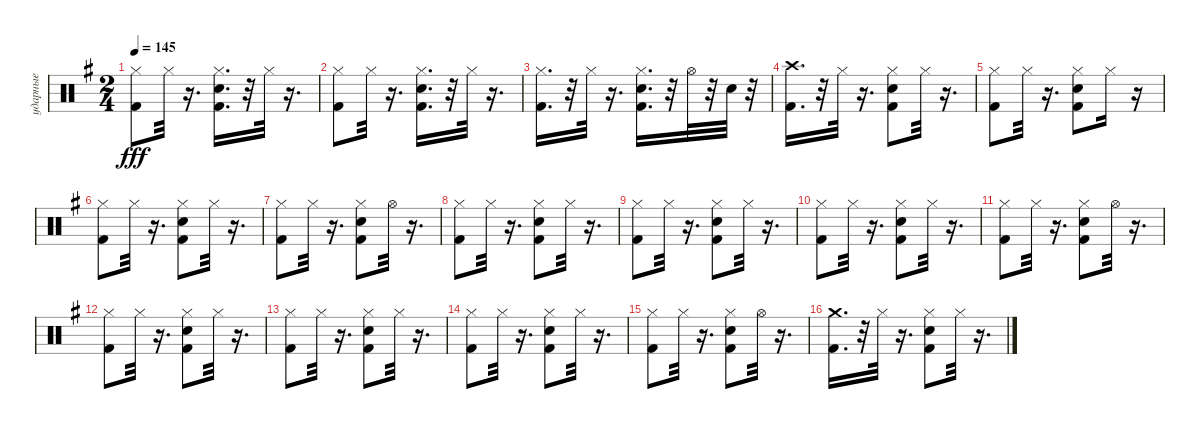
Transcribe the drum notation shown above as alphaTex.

\track ("ударные" "ударные") {instrument percussion}
\staff {score}
\articulation defaults
\ts (2 4)
\tempo 145
\clef neutral
\ks eminor
("Kick (hit) 2" "Hi-Hat (closed)").8{dy fff} "Hi-Hat (closed)".32 r.16{d} ("Snare (hit) 2" "Kick (hit) 2" "Hi-Hat (closed)").16{d} r.32 "Hi-Hat (closed)".32 r.16{d} |
("Kick (hit) 2" "Hi-Hat (closed)").8 "Hi-Hat (closed)".32 r.16{d} ("Hi-Hat (closed)" "Snare (hit) 2" "Kick (hit) 2").16{d} r.32 "Hi-Hat (closed)".32 r.16{d} |
("Kick (hit) 2" "Hi-Hat (closed)").16{d} r.32 "Hi-Hat (closed)".32 r.16{d} ("Snare (hit) 2" "Kick (hit) 2" "Hi-Hat (closed)").16{d} r.32 "Hi-Hat (open)".32 r.32 "Snare (hit) 2".32 r.32 |
("Kick (hit) 2" "Crash high (hit)").16{d} r.32 "Hi-Hat (closed)".32 r.16{d} ("Kick (hit) 2" "Snare (hit) 2" "Hi-Hat (closed)").8 "Hi-Hat (closed)".32 r.16{d} |
("Kick (hit) 2" "Hi-Hat (closed)").8 "Hi-Hat (closed)".32 r.16{d} ("Snare (hit) 2" "Kick (hit) 2" "Hi-Hat (closed)").8 "Hi-Hat (closed)".16 r.16 |
("Kick (hit) 2" "Hi-Hat (closed)").8 "Hi-Hat (closed)".32 r.16{d} ("Snare (hit) 2" "Kick (hit) 2" "Hi-Hat (closed)").8 "Hi-Hat (closed)".32 r.16{d} |
("Kick (hit) 2" "Hi-Hat (closed)").8 "Hi-Hat (closed)".32 r.16{d} ("Kick (hit) 2" "Snare (hit) 2" "Hi-Hat (closed)").8 "Hi-Hat (open)".32 r.16{d} |
("Kick (hit) 2" "Hi-Hat (closed)").8 "Hi-Hat (closed)".32 r.16{d} ("Snare (hit) 2" "Kick (hit) 2" "Hi-Hat (closed)").8 "Hi-Hat (closed)".32 r.16{d} |
("Kick (hit) 2" "Hi-Hat (closed)").8 "Hi-Hat (closed)".32 r.16{d} ("Snare (hit) 2" "Kick (hit) 2" "Hi-Hat (closed)").8 "Hi-Hat (closed)".32 r.16{d} |
("Kick (hit) 2" "Hi-Hat (closed)").8 "Hi-Hat (closed)".32 r.16{d} ("Hi-Hat (closed)" "Snare (hit) 2" "Kick (hit) 2").8 "Hi-Hat (closed)".32 r.16{d} |
("Kick (hit) 2" "Hi-Hat (closed)").8 "Hi-Hat (closed)".32 r.16{d} ("Kick (hit) 2" "Hi-Hat (closed)" "Snare (hit) 2").8 "Hi-Hat (open)".32 r.16{d} |
("Kick (hit) 2" "Hi-Hat (closed)").8 "Hi-Hat (closed)".32 r.16{d} ("Kick (hit) 2" "Hi-Hat (closed)" "Snare (hit) 2").8 "Hi-Hat (closed)".32 r.16{d} |
("Kick (hit) 2" "Hi-Hat (closed)").8 "Hi-Hat (closed)".32 r.16{d} ("Snare (hit) 2" "Kick (hit) 2" "Hi-Hat (closed)").8 "Hi-Hat (closed)".32 r.16{d} |
("Kick (hit) 2" "Hi-Hat (closed)").8 "Hi-Hat (closed)".32 r.16{d} ("Kick (hit) 2" "Hi-Hat (closed)" "Snare (hit) 2").8 "Hi-Hat (closed)".32 r.16{d} |
("Kick (hit) 2" "Hi-Hat (closed)").8 "Hi-Hat (closed)".32 r.16{d} ("Kick (hit) 2" "Hi-Hat (closed)" "Snare (hit) 2").8 "Hi-Hat (open)".32 r.16{d} |
("Kick (hit) 2" "Crash medium (hit)").16{d} r.32 "Hi-Hat (closed)".32 r.16{d} ("Kick (hit) 2" "Snare (hit) 2" "Hi-Hat (closed)").8 "Hi-Hat (closed)".32 r.16{d}
